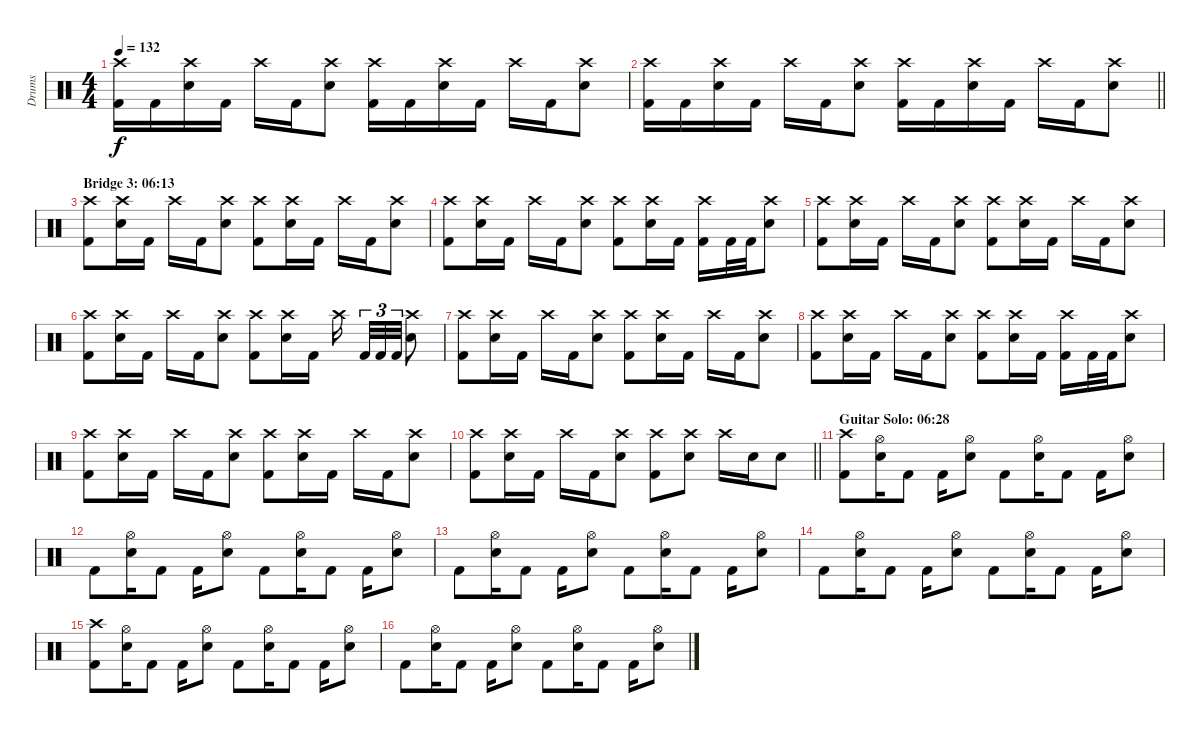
\track ("Drums" "Drums") {instrument percussion}
\staff {score}
\articulation defaults
\ts (4 4)
\tempo 132
\clef neutral
\ks c
("Crash high (hit)" "Kick (hit) 2").16{dy f} "Kick (hit) 2".16 ("Crash high (hit)" "Electric Snare (hit)").16 "Kick (hit) 2".16 "Crash high (hit)".16 "Kick (hit) 2".16 ("Crash high (hit)" "Electric Snare (hit)").8 ("Crash high (hit)" "Kick (hit) 2").16 "Kick (hit) 2".16 ("Crash high (hit)" "Electric Snare (hit)").16 "Kick (hit) 2".16 "Crash high (hit)".16 "Kick (hit) 2".16 ("Crash high (hit)" "Electric Snare (hit)").8 |
\barLineRight lightlight
("Crash high (hit)" "Kick (hit) 2").16 "Kick (hit) 2".16 ("Crash high (hit)" "Electric Snare (hit)").16 "Kick (hit) 2".16 "Crash high (hit)".16 "Kick (hit) 2".16 ("Crash high (hit)" "Electric Snare (hit)").8 ("Crash high (hit)" "Kick (hit) 2").16 "Kick (hit) 2".16 ("Crash high (hit)" "Electric Snare (hit)").16 "Kick (hit) 2".16 "Crash high (hit)".16 "Kick (hit) 2".16 ("Crash high (hit)" "Electric Snare (hit)").8 |
\section ("" "Bridge 3: 06:13")
("Crash high (hit)" "Kick (hit) 2").8 ("Crash high (hit)" "Electric Snare (hit)").16 "Kick (hit) 2".16 "Crash high (hit)".16 "Kick (hit) 2".16 ("Crash high (hit)" "Electric Snare (hit)").8 ("Crash high (hit)" "Kick (hit) 2").8 ("Crash high (hit)" "Electric Snare (hit)").16 "Kick (hit) 2".16 "Crash high (hit)".16 "Kick (hit) 2".16 ("Crash high (hit)" "Electric Snare (hit)").8 |
("Crash high (hit)" "Kick (hit) 2").8 ("Crash high (hit)" "Electric Snare (hit)").16 "Kick (hit) 2".16 "Crash high (hit)".16 "Kick (hit) 2".16 ("Crash high (hit)" "Electric Snare (hit)").8 ("Crash high (hit)" "Kick (hit) 2").8 ("Crash high (hit)" "Electric Snare (hit)").16 "Kick (hit) 2".16 ("Crash high (hit)" "Kick (hit) 2").16 "Kick (hit) 2".32 "Kick (hit) 2".32 ("Crash high (hit)" "Electric Snare (hit)").8 |
("Crash high (hit)" "Kick (hit) 2").8 ("Crash high (hit)" "Electric Snare (hit)").16 "Kick (hit) 2".16 "Crash high (hit)".16 "Kick (hit) 2".16 ("Crash high (hit)" "Electric Snare (hit)").8 ("Crash high (hit)" "Kick (hit) 2").8 ("Crash high (hit)" "Electric Snare (hit)").16 "Kick (hit) 2".16 "Crash high (hit)".16 "Kick (hit) 2".16 ("Crash high (hit)" "Electric Snare (hit)").8 |
("Crash high (hit)" "Kick (hit) 2").8 ("Crash high (hit)" "Electric Snare (hit)").16 "Kick (hit) 2".16 "Crash high (hit)".16 "Kick (hit) 2".16 ("Crash high (hit)" "Electric Snare (hit)").8 ("Crash high (hit)" "Kick (hit) 2").8 ("Crash high (hit)" "Electric Snare (hit)").16 "Kick (hit) 2".16 "Crash high (hit)".16{beam splitsecondary} "Kick (hit) 2".32{tu (3 2)} "Kick (hit) 2".32{tu (3 2)} "Kick (hit) 2".32{tu (3 2)} ("Crash high (hit)" "Electric Snare (hit)").8 |
("Crash high (hit)" "Kick (hit) 2").8 ("Crash high (hit)" "Electric Snare (hit)").16 "Kick (hit) 2".16 "Crash high (hit)".16 "Kick (hit) 2".16 ("Crash high (hit)" "Electric Snare (hit)").8 ("Crash high (hit)" "Kick (hit) 2").8 ("Crash high (hit)" "Electric Snare (hit)").16 "Kick (hit) 2".16 "Crash high (hit)".16 "Kick (hit) 2".16 ("Crash high (hit)" "Electric Snare (hit)").8 |
("Crash high (hit)" "Kick (hit) 2").8 ("Crash high (hit)" "Electric Snare (hit)").16 "Kick (hit) 2".16 "Crash high (hit)".16 "Kick (hit) 2".16 ("Crash high (hit)" "Electric Snare (hit)").8 ("Crash high (hit)" "Kick (hit) 2").8 ("Crash high (hit)" "Electric Snare (hit)").16 "Kick (hit) 2".16 ("Crash high (hit)" "Kick (hit) 2").16 "Kick (hit) 2".32 "Kick (hit) 2".32 ("Crash high (hit)" "Electric Snare (hit)").8 |
("Crash high (hit)" "Kick (hit) 2").8 ("Crash high (hit)" "Electric Snare (hit)").16 "Kick (hit) 2".16 "Crash high (hit)".16 "Kick (hit) 2".16 ("Crash high (hit)" "Electric Snare (hit)").8 ("Crash high (hit)" "Kick (hit) 2").8 ("Crash high (hit)" "Electric Snare (hit)").16 "Kick (hit) 2".16 "Crash high (hit)".16 "Kick (hit) 2".16 ("Crash high (hit)" "Electric Snare (hit)").8 |
\barLineRight lightlight
("Crash high (hit)" "Kick (hit) 2").8 ("Crash high (hit)" "Electric Snare (hit)").16 "Kick (hit) 2".16 "Crash high (hit)".16 "Kick (hit) 2".16 ("Crash high (hit)" "Electric Snare (hit)").8 ("Crash high (hit)" "Kick (hit) 2").8 ("Crash high (hit)" "Electric Snare (hit)").8 "Crash high (hit)".16 "Electric Snare (hit)".16 "Electric Snare (hit)".8 |
\section ("" "Guitar Solo: 06:28")
("Crash high (hit)" "Kick (hit) 2").8 ("Hi-Hat (open)" "Electric Snare (hit)").16 "Kick (hit) 2".8 "Kick (hit) 2".16 ("Hi-Hat (open)" "Electric Snare (hit)").8 "Kick (hit) 2".8 ("Hi-Hat (open)" "Electric Snare (hit)").16 "Kick (hit) 2".8 "Kick (hit) 2".16 ("Hi-Hat (open)" "Electric Snare (hit)").8 |
"Kick (hit) 2".8 ("Hi-Hat (open)" "Electric Snare (hit)").16 "Kick (hit) 2".8 "Kick (hit) 2".16 ("Hi-Hat (open)" "Electric Snare (hit)").8 "Kick (hit) 2".8 ("Hi-Hat (open)" "Electric Snare (hit)").16 "Kick (hit) 2".8 "Kick (hit) 2".16 ("Hi-Hat (open)" "Electric Snare (hit)").8 |
"Kick (hit) 2".8 ("Hi-Hat (open)" "Electric Snare (hit)").16 "Kick (hit) 2".8 "Kick (hit) 2".16 ("Hi-Hat (open)" "Electric Snare (hit)").8 "Kick (hit) 2".8 ("Hi-Hat (open)" "Electric Snare (hit)").16 "Kick (hit) 2".8 "Kick (hit) 2".16 ("Hi-Hat (open)" "Electric Snare (hit)").8 |
"Kick (hit) 2".8 ("Hi-Hat (open)" "Electric Snare (hit)").16 "Kick (hit) 2".8 "Kick (hit) 2".16 ("Hi-Hat (open)" "Electric Snare (hit)").8 "Kick (hit) 2".8 ("Hi-Hat (open)" "Electric Snare (hit)").16 "Kick (hit) 2".8 "Kick (hit) 2".16 ("Hi-Hat (open)" "Electric Snare (hit)").8 |
("Crash high (hit)" "Kick (hit) 2").8 ("Hi-Hat (open)" "Electric Snare (hit)").16 "Kick (hit) 2".8 "Kick (hit) 2".16 ("Hi-Hat (open)" "Electric Snare (hit)").8 "Kick (hit) 2".8 ("Hi-Hat (open)" "Electric Snare (hit)").16 "Kick (hit) 2".8 "Kick (hit) 2".16 ("Hi-Hat (open)" "Electric Snare (hit)").8 |
"Kick (hit) 2".8 ("Hi-Hat (open)" "Electric Snare (hit)").16 "Kick (hit) 2".8 "Kick (hit) 2".16 ("Hi-Hat (open)" "Electric Snare (hit)").8 "Kick (hit) 2".8 ("Hi-Hat (open)" "Electric Snare (hit)").16 "Kick (hit) 2".8 "Kick (hit) 2".16 ("Hi-Hat (open)" "Electric Snare (hit)").8
